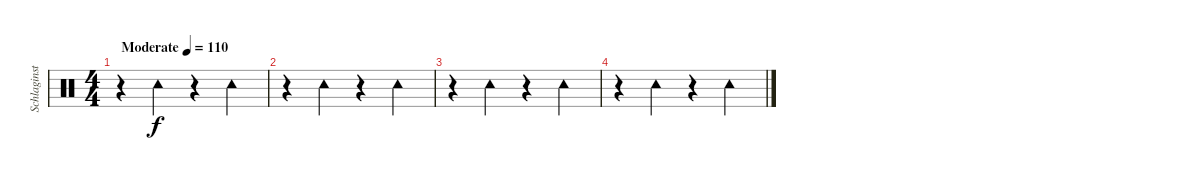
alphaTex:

\track ("Schlaginstrumente - Auswahl" "Schlaginst") {instrument percussion}
\staff {score}
\articulation defaults
\ts (4 4)
\tempo (110 "Moderate")
\clef neutral
\ks c
r.4{dy f} "Tambourine (hit)".4 r.4 "Tambourine (hit)".4 |
r.4 "Tambourine (hit)".4 r.4 "Tambourine (hit)".4 |
r.4 "Tambourine (hit)".4 r.4 "Tambourine (hit)".4 |
r.4 "Tambourine (hit)".4 r.4 "Tambourine (hit)".4
